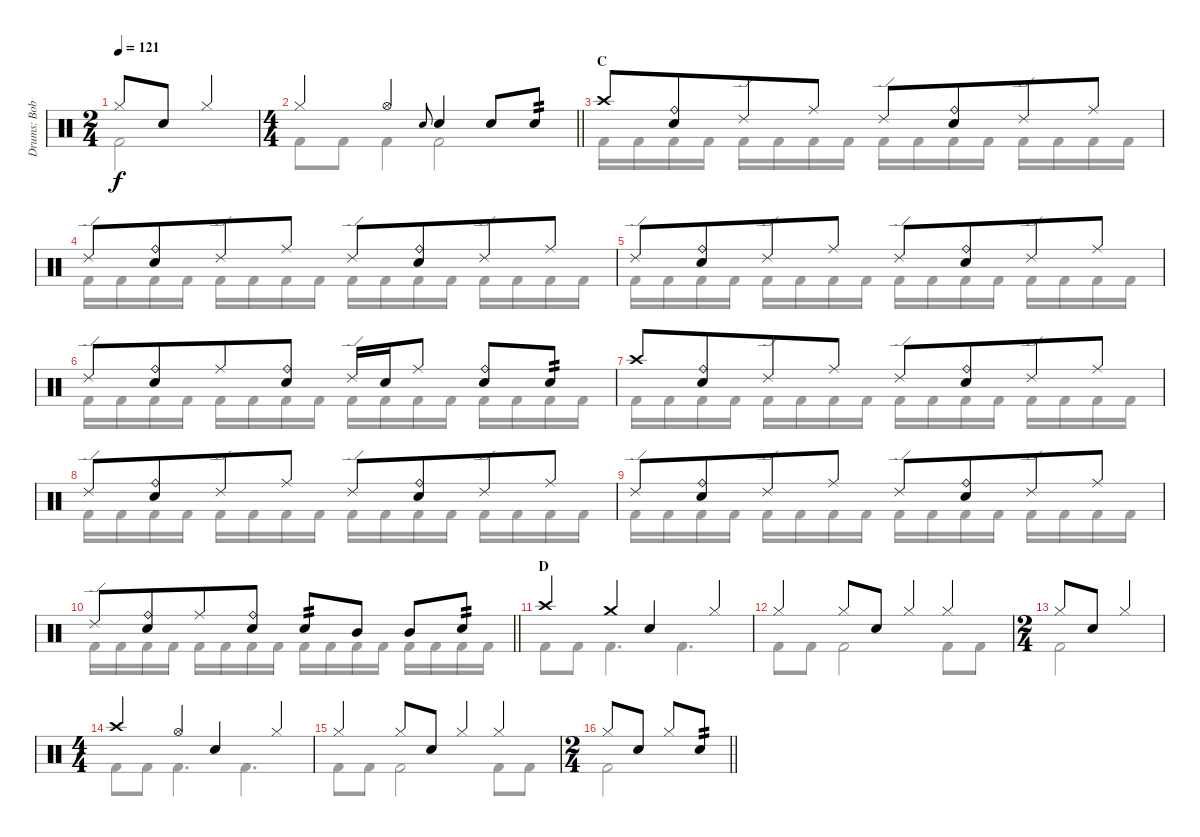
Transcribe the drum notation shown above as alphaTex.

\track ("Drums: Bobby" "Drums: Bob") {instrument percussion}
\staff {score}
\articulation defaults
\voice
\ts (2 4)
\tempo 121
\clef neutral
\ks c "Hi-Hat (closed)".8{dy f} "Snare (hit) 2".8 "Hi-Hat (closed)".4
|
\ts (4 4)
\barLineRight lightlight "Hi-Hat (closed)".4 "Hi-Hat (open)".4 "Electric Snare (hit)".8{gr onbeat} "Snare (hit) 2".4 "Snare (hit) 2".8 "Snare (hit) 2".8{tp 2}
|
\section ("" "C")
"Crash high (hit)".8 ("Ride (bell)" "Snare (hit) 2").8{beam merge} "Ride (edge) 2".8 "Ride (middle)".8 "Ride (edge) 2".8 ("Ride (bell)" "Snare (hit) 2").8{beam merge} "Ride (edge) 2".8 "Ride (middle)".8 |
"Ride (edge) 2".8 ("Ride (bell)" "Snare (hit) 2").8{beam merge} "Ride (edge) 2".8 "Ride (middle)".8 "Ride (edge) 2".8 ("Ride (bell)" "Snare (hit) 2").8{beam merge} "Ride (edge) 2".8 "Ride (middle)".8 |
"Ride (edge) 2".8 ("Ride (bell)" "Snare (hit) 2").8{beam merge} "Ride (edge) 2".8 "Ride (middle)".8 "Ride (edge) 2".8 ("Ride (bell)" "Snare (hit) 2").8{beam merge} "Ride (edge) 2".8 "Ride (middle)".8 |
"Ride (edge) 2".8 ("Ride (bell)" "Snare (hit) 2").8{beam merge} "Ride (middle)".8 ("Ride (bell)" "Snare (hit) 2").8 "Ride (edge) 2".16 "Snare (hit) 2".16 "Ride (middle)".8 ("Ride (bell)" "Snare (hit) 2").8 "Electric Snare (hit)".8{tp 2} |
"Crash high (hit)".8 ("Ride (bell)" "Snare (hit) 2").8{beam merge} "Ride (edge) 2".8 "Ride (middle)".8 "Ride (edge) 2".8 ("Ride (bell)" "Snare (hit) 2").8{beam merge} "Ride (edge) 2".8 "Ride (middle)".8 |
"Ride (edge) 2".8 ("Ride (bell)" "Snare (hit) 2").8{beam merge} "Ride (edge) 2".8 "Ride (middle)".8 "Ride (edge) 2".8 ("Ride (bell)" "Snare (hit) 2").8{beam merge} "Ride (edge) 2".8 "Ride (middle)".8 |
"Ride (edge) 2".8 ("Ride (bell)" "Snare (hit) 2").8{beam merge} "Ride (edge) 2".8 "Ride (middle)".8 "Ride (edge) 2".8 ("Ride (bell)" "Snare (hit) 2").8{beam merge} "Ride (edge) 2".8 "Ride (middle)".8 |
\barLineRight lightlight "Ride (edge) 2".8
("Ride (bell)" "Snare (hit) 2").8{beam merge} "Ride (middle)".8 ("Ride (bell)" "Snare (hit) 2").8 "Snare (hit) 2".8{tp 2} "Mid Tom (hit)".8 "Mid Tom (hit)".8 "Electric Snare (hit)".8{tp 2} |
\section ("" "D")
"Crash high (hit)".4 "Crash medium (hit)".4 "Snare (hit) 2".4 "Hi-Hat (closed)".4 |
"Hi-Hat (closed)".4 "Hi-Hat (closed)".8 "Snare (hit) 2".8 "Hi-Hat (closed)".4 "Hi-Hat (closed)".4 |
\ts (2 4)
"Hi-Hat (closed)".8 "Snare (hit) 2".8 "Hi-Hat (closed)".4 |
\ts (4 4)
"Crash high (hit)".4 "Hi-Hat (open)".4 "Snare (hit) 2".4 "Hi-Hat (closed)".4 |
"Hi-Hat (closed)".4 "Hi-Hat (closed)".8 "Snare (hit) 2".8 "Hi-Hat (closed)".4 "Hi-Hat (closed)".4 |
\ts (2 4)
\barLineRight lightlight "Hi-Hat (closed)".8 "Snare (hit) 2".8 "Hi-Hat (closed)".8 "Snare (hit) 2".8{tp 2}
\voice
\clef neutral
\ottava regular
\simile none
\ks c "Kick (hit) 2".2{dy f}
|
\barLineRight lightlight "Kick (hit) 2".8 "Kick (hit) 2".8 "Kick (hit) 2".4 "Kick (hit) 2".2
|
"Kick (hit) 2".16 "Kick (hit) 2".16 "Kick (hit) 2".16 "Kick (hit) 2".16 "Kick (hit) 2".16 "Kick (hit) 2".16 "Kick (hit) 2".16 "Kick (hit) 2".16 "Kick (hit) 2".16 "Kick (hit) 2".16 "Kick (hit) 2".16 "Kick (hit) 2".16 "Kick (hit) 2".16 "Kick (hit) 2".16 "Kick (hit) 2".16 "Kick (hit) 2".16 |
"Kick (hit) 2".16 "Kick (hit) 2".16 "Kick (hit) 2".16 "Kick (hit) 2".16 "Kick (hit) 2".16 "Kick (hit) 2".16 "Kick (hit) 2".16 "Kick (hit) 2".16 "Kick (hit) 2".16 "Kick (hit) 2".16 "Kick (hit) 2".16 "Kick (hit) 2".16 "Kick (hit) 2".16 "Kick (hit) 2".16 "Kick (hit) 2".16 "Kick (hit) 2".16 |
"Kick (hit) 2".16 "Kick (hit) 2".16 "Kick (hit) 2".16 "Kick (hit) 2".16 "Kick (hit) 2".16 "Kick (hit) 2".16 "Kick (hit) 2".16 "Kick (hit) 2".16 "Kick (hit) 2".16 "Kick (hit) 2".16 "Kick (hit) 2".16 "Kick (hit) 2".16 "Kick (hit) 2".16 "Kick (hit) 2".16 "Kick (hit) 2".16 "Kick (hit) 2".16 |
"Kick (hit) 2".16 "Kick (hit) 2".16 "Kick (hit) 2".16 "Kick (hit) 2".16 "Kick (hit) 2".16 "Kick (hit) 2".16 "Kick (hit) 2".16 "Kick (hit) 2".16 "Kick (hit) 2".16 "Kick (hit) 2".16 "Kick (hit) 2".16 "Kick (hit) 2".16 "Kick (hit) 2".16 "Kick (hit) 2".16 "Kick (hit) 2".16 "Kick (hit) 2".16 |
"Kick (hit) 2".16 "Kick (hit) 2".16 "Kick (hit) 2".16 "Kick (hit) 2".16 "Kick (hit) 2".16 "Kick (hit) 2".16 "Kick (hit) 2".16 "Kick (hit) 2".16 "Kick (hit) 2".16 "Kick (hit) 2".16 "Kick (hit) 2".16 "Kick (hit) 2".16 "Kick (hit) 2".16 "Kick (hit) 2".16 "Kick (hit) 2".16 "Kick (hit) 2".16 |
"Kick (hit) 2".16 "Kick (hit) 2".16 "Kick (hit) 2".16 "Kick (hit) 2".16 "Kick (hit) 2".16 "Kick (hit) 2".16 "Kick (hit) 2".16 "Kick (hit) 2".16 "Kick (hit) 2".16 "Kick (hit) 2".16 "Kick (hit) 2".16 "Kick (hit) 2".16 "Kick (hit) 2".16 "Kick (hit) 2".16 "Kick (hit) 2".16 "Kick (hit) 2".16 |
"Kick (hit) 2".16 "Kick (hit) 2".16 "Kick (hit) 2".16 "Kick (hit) 2".16 "Kick (hit) 2".16 "Kick (hit) 2".16 "Kick (hit) 2".16 "Kick (hit) 2".16 "Kick (hit) 2".16 "Kick (hit) 2".16 "Kick (hit) 2".16 "Kick (hit) 2".16 "Kick (hit) 2".16 "Kick (hit) 2".16 "Kick (hit) 2".16 "Kick (hit) 2".16 |
\barLineRight lightlight "Kick (hit) 2".16 "Kick (hit) 2".16 "Kick (hit) 2".16 "Kick (hit) 2".16 "Kick (hit) 2".16 "Kick (hit) 2".16 "Kick (hit) 2".16 "Kick (hit) 2".16 "Kick (hit) 2".16 "Kick (hit) 2".16 "Kick (hit) 2".16 "Kick (hit) 2".16 "Kick (hit) 2".16 "Kick (hit) 2".16 "Kick (hit) 2".16 "Kick (hit) 2".16
|
"Kick (hit) 2".8 "Kick (hit) 2".8 "Kick (hit) 2".4{d} "Kick (hit) 2".4{d} |
"Kick (hit) 2".8 "Kick (hit) 2".8 "Kick (hit) 2".2 "Kick (hit) 2".8 "Kick (hit) 2".8 |
"Kick (hit) 2".2 |
"Kick (hit) 2".8 "Kick (hit) 2".8 "Kick (hit) 2".4{d} "Kick (hit) 2".4{d} |
"Kick (hit) 2".8 "Kick (hit) 2".8 "Kick (hit) 2".2 "Kick (hit) 2".8 "Kick (hit) 2".8 |
\barLineRight lightlight "Kick (hit) 2".2
